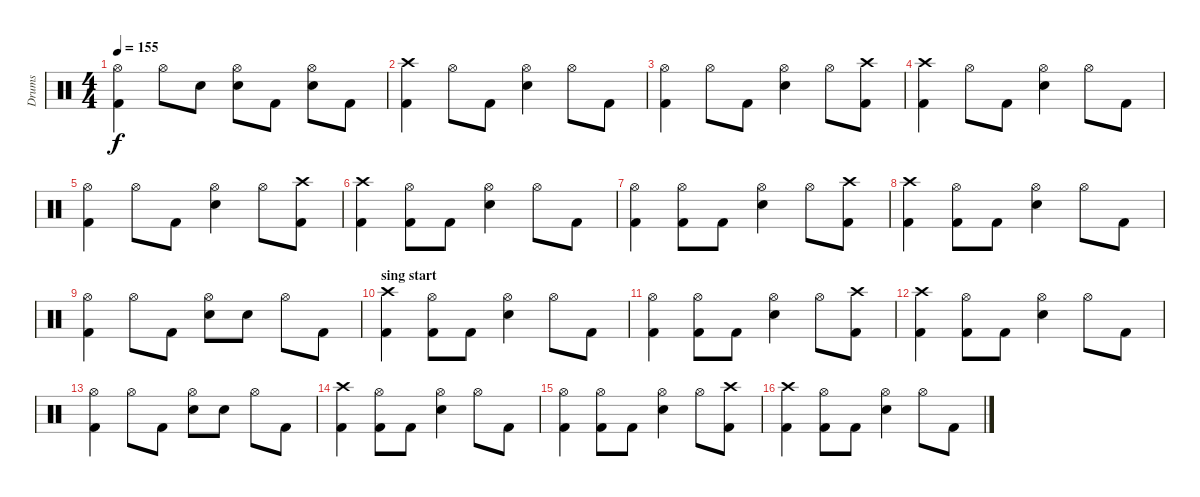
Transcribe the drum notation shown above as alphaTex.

\track ("Drums" "Drums") {instrument percussion}
\staff {score}
\articulation defaults
\ts (4 4)
\tempo 155
\clef neutral
\ks c
("Hi-Hat (open)" "Kick (hit) 2").4{dy f} "Hi-Hat (open)".8 "Electric Snare (hit)".8 ("Hi-Hat (open)" "Electric Snare (hit)").8 "Kick (hit) 2".8 ("Hi-Hat (open)" "Electric Snare (hit)").8 "Kick (hit) 2".8 |
("Crash high (hit)" "Kick (hit) 2").4 "Hi-Hat (open)".8 "Kick (hit) 2".8 ("Hi-Hat (open)" "Electric Snare (hit)").4 "Hi-Hat (open)".8 "Kick (hit) 2".8 |
("Hi-Hat (open)" "Kick (hit) 2").4 "Hi-Hat (open)".8 "Kick (hit) 2".8 ("Hi-Hat (open)" "Electric Snare (hit)").4 "Hi-Hat (open)".8 ("Crash high (hit)" "Kick (hit) 2").8 |
("Crash high (hit)" "Kick (hit) 2").4 "Hi-Hat (open)".8 "Kick (hit) 2".8 ("Hi-Hat (open)" "Electric Snare (hit)").4 "Hi-Hat (open)".8 "Kick (hit) 2".8 |
("Hi-Hat (open)" "Kick (hit) 2").4 "Hi-Hat (open)".8 "Kick (hit) 2".8 ("Hi-Hat (open)" "Electric Snare (hit)").4 "Hi-Hat (open)".8 ("Crash high (hit)" "Kick (hit) 2").8 |
("Crash high (hit)" "Kick (hit) 2").4 ("Hi-Hat (open)" "Kick (hit) 2").8 "Kick (hit) 2".8 ("Hi-Hat (open)" "Electric Snare (hit)").4 "Hi-Hat (open)".8 "Kick (hit) 2".8 |
("Hi-Hat (open)" "Kick (hit) 2").4 ("Hi-Hat (open)" "Kick (hit) 2").8 "Kick (hit) 2".8 ("Hi-Hat (open)" "Electric Snare (hit)").4 "Hi-Hat (open)".8 ("Crash high (hit)" "Kick (hit) 2").8 |
("Crash high (hit)" "Kick (hit) 2").4 ("Hi-Hat (open)" "Kick (hit) 2").8 "Kick (hit) 2".8 ("Hi-Hat (open)" "Electric Snare (hit)").4 "Hi-Hat (open)".8 "Kick (hit) 2".8 |
("Hi-Hat (open)" "Kick (hit) 2").4 "Hi-Hat (open)".8 "Kick (hit) 2".8 ("Hi-Hat (open)" "Electric Snare (hit)").8 "Electric Snare (hit)".8 "Hi-Hat (open)".8 "Kick (hit) 2".8 |
\section ("" "sing start")
("Crash high (hit)" "Kick (hit) 2").4 ("Hi-Hat (open)" "Kick (hit) 2").8 "Kick (hit) 2".8 ("Hi-Hat (open)" "Electric Snare (hit)").4 "Hi-Hat (open)".8 "Kick (hit) 2".8 |
("Hi-Hat (open)" "Kick (hit) 2").4 ("Hi-Hat (open)" "Kick (hit) 2").8 "Kick (hit) 2".8 ("Hi-Hat (open)" "Electric Snare (hit)").4 "Hi-Hat (open)".8 ("Crash high (hit)" "Kick (hit) 2").8 |
("Crash high (hit)" "Kick (hit) 2").4 ("Hi-Hat (open)" "Kick (hit) 2").8 "Kick (hit) 2".8 ("Hi-Hat (open)" "Electric Snare (hit)").4 "Hi-Hat (open)".8 "Kick (hit) 2".8 |
("Hi-Hat (open)" "Kick (hit) 2").4 "Hi-Hat (open)".8 "Kick (hit) 2".8 ("Hi-Hat (open)" "Electric Snare (hit)").8 "Electric Snare (hit)".8 "Hi-Hat (open)".8 "Kick (hit) 2".8 |
("Crash high (hit)" "Kick (hit) 2").4 ("Hi-Hat (open)" "Kick (hit) 2").8 "Kick (hit) 2".8 ("Hi-Hat (open)" "Electric Snare (hit)").4 "Hi-Hat (open)".8 "Kick (hit) 2".8 |
("Hi-Hat (open)" "Kick (hit) 2").4 ("Hi-Hat (open)" "Kick (hit) 2").8 "Kick (hit) 2".8 ("Hi-Hat (open)" "Electric Snare (hit)").4 "Hi-Hat (open)".8 ("Crash high (hit)" "Kick (hit) 2").8 |
("Crash high (hit)" "Kick (hit) 2").4 ("Hi-Hat (open)" "Kick (hit) 2").8 "Kick (hit) 2".8 ("Hi-Hat (open)" "Electric Snare (hit)").4 "Hi-Hat (open)".8 "Kick (hit) 2".8
